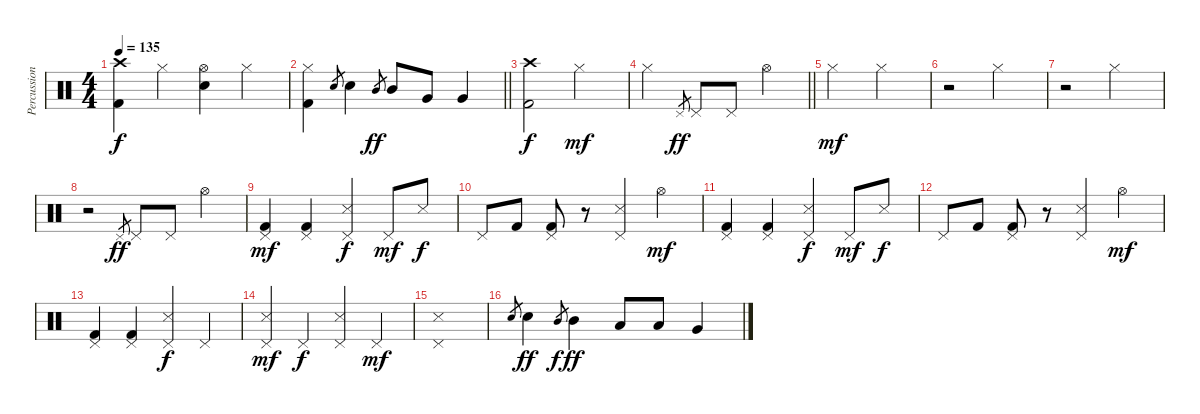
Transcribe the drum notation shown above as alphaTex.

\track ("Percussion" "Percussion") {instrument percussion}
\staff {score}
\articulation defaults
\ts (4 4)
\tempo 135
\clef neutral
\ks c
("Crash high (hit)" "Kick (hit) 2").4{dy f} "Hi-Hat (closed)".4 ("Hi-Hat (open)" "Electric Snare (hit)").4 "Hi-Hat (closed)".4 |
\barLineRight lightlight
("Hi-Hat (closed)" "Kick (hit) 2").4 "Electric Snare (hit)".8{gr} "Electric Snare (hit)".4 "Mid Tom (hit)".8{gr dy ff} "Mid Tom (hit)".8 "Very Low Tom (hit)".8 "Very Low Tom (hit)".4 |
("Crash high (hit)" "Kick (hit) 2").2{dy f} "Hi-Hat (closed)".2{dy mf} |
\barLineRight lightlight "Hi-Hat (closed)".2 "Pedal Hi-Hat (hit)".8{gr dy ff} "Pedal Hi-Hat (hit)".8 "Pedal Hi-Hat (hit)".8 "Hi-Hat (open)".4
|
"Hi-Hat (closed)".2{dy mf} "Hi-Hat (closed)".2 |
r.2 "Hi-Hat (closed)".2 |
r.2 "Hi-Hat (closed)".2 |
r.2 "Pedal Hi-Hat (hit)".8{gr dy ff} "Pedal Hi-Hat (hit)".8 "Pedal Hi-Hat (hit)".8 "Hi-Hat (open)".4 |
("Pedal Hi-Hat (hit)" "Kick (hit) 2").4{dy mf} ("Pedal Hi-Hat (hit)" "Kick (hit) 2").4 ("Pedal Hi-Hat (hit)" "Snare (side stick) 3").4{dy f} "Pedal Hi-Hat (hit)".8{dy mf} "Snare (side stick) 3".8{dy f} |
"Pedal Hi-Hat (hit)".8 "Kick (hit) 2".8 ("Pedal Hi-Hat (hit)" "Kick (hit) 2").8 r.8 ("Pedal Hi-Hat (hit)" "Snare (side stick) 3").4 "Hi-Hat (open)".4{dy mf} |
("Pedal Hi-Hat (hit)" "Kick (hit) 2").4 ("Pedal Hi-Hat (hit)" "Kick (hit) 2").4 ("Pedal Hi-Hat (hit)" "Snare (side stick) 3").4{dy f} "Pedal Hi-Hat (hit)".8{dy mf} "Snare (side stick) 3".8{dy f} |
"Pedal Hi-Hat (hit)".8 "Kick (hit) 2".8 ("Pedal Hi-Hat (hit)" "Kick (hit) 2").8 r.8 ("Pedal Hi-Hat (hit)" "Snare (side stick) 3").4 "Hi-Hat (open)".4{dy mf} |
("Pedal Hi-Hat (hit)" "Kick (hit) 2").4 ("Pedal Hi-Hat (hit)" "Kick (hit) 2").4 ("Pedal Hi-Hat (hit)" "Snare (side stick) 3").4{dy f} "Pedal Hi-Hat (hit)".4 |
("Pedal Hi-Hat (hit)" "Snare (side stick) 3").4{dy mf} "Pedal Hi-Hat (hit)".4{dy f} ("Pedal Hi-Hat (hit)" "Snare (side stick) 3").4 "Pedal Hi-Hat (hit)".4{dy mf} |
("Pedal Hi-Hat (hit)" "Snare (side stick) 3").1 |
"Electric Snare (hit)".8{gr} "Electric Snare (hit)".4{dy ff} "Mid Tom (hit)".8{gr dy f} "Mid Tom (hit)".4{dy ff} "Low Tom (hit)".8 "Low Tom (hit)".8 "Very Low Tom (hit)".4
